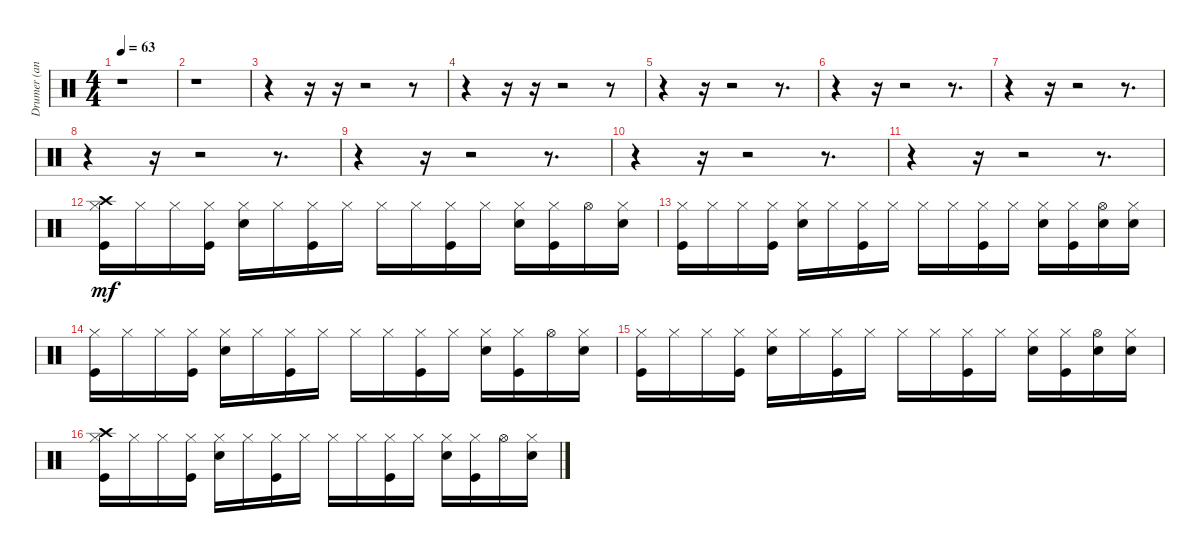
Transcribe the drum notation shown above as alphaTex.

\track ("Drumer (ananbakeri.blogspot.com)" "Drumer (an") {instrument percussion}
\staff {score}
\articulation defaults
\ts (4 4)
\tempo 63
\clef neutral
\ks c
r.1{dy mf} |
r.1 |
r.4 r.16 r.16 r.2 r.8 |
r.4 r.16 r.16 r.2 r.8 |
r.4 r.16 r.2 r.8{d} |
r.4 r.16 r.2 r.8{d} |
r.4 r.16 r.2 r.8{d} |
r.4 r.16 r.2 r.8{d} |
r.4 r.16 r.2 r.8{d} |
r.4 r.16 r.2 r.8{d} |
r.4 r.16 r.2 r.8{d} |
("Hi-Hat (closed)" "Crash high (hit)" "Kick (hit)").16 "Hi-Hat (closed)".16 "Hi-Hat (closed)".16 ("Hi-Hat (closed)" "Kick (hit)").16 ("Hi-Hat (closed)" "Snare (hit) 2").16 "Hi-Hat (closed)".16 ("Hi-Hat (closed)" "Kick (hit)").16 "Hi-Hat (closed)".16 "Hi-Hat (closed)".16 "Hi-Hat (closed)".16 ("Hi-Hat (closed)" "Kick (hit)").16 "Hi-Hat (closed)".16 ("Hi-Hat (closed)" "Snare (hit) 2").16 ("Hi-Hat (closed)" "Kick (hit)").16 "Hi-Hat (open)".16 ("Hi-Hat (closed)" "Snare (hit) 2").16 |
("Hi-Hat (closed)" "Kick (hit)").16 "Hi-Hat (closed)".16 "Hi-Hat (closed)".16 ("Hi-Hat (closed)" "Kick (hit)").16 ("Hi-Hat (closed)" "Snare (hit) 2").16 "Hi-Hat (closed)".16 ("Hi-Hat (closed)" "Kick (hit)").16 "Hi-Hat (closed)".16 "Hi-Hat (closed)".16 "Hi-Hat (closed)".16 ("Hi-Hat (closed)" "Kick (hit)").16 "Hi-Hat (closed)".16 ("Hi-Hat (closed)" "Snare (hit) 2").16 ("Hi-Hat (closed)" "Kick (hit)").16 ("Hi-Hat (open)" "Snare (hit) 2").16 ("Hi-Hat (closed)" "Snare (hit) 2").16 |
("Hi-Hat (closed)" "Kick (hit)").16 "Hi-Hat (closed)".16 "Hi-Hat (closed)".16 ("Hi-Hat (closed)" "Kick (hit)").16 ("Hi-Hat (closed)" "Snare (hit) 2").16 "Hi-Hat (closed)".16 ("Hi-Hat (closed)" "Kick (hit)").16 "Hi-Hat (closed)".16 "Hi-Hat (closed)".16 "Hi-Hat (closed)".16 ("Hi-Hat (closed)" "Kick (hit)").16 "Hi-Hat (closed)".16 ("Hi-Hat (closed)" "Snare (hit) 2").16 ("Hi-Hat (closed)" "Kick (hit)").16 "Hi-Hat (open)".16 ("Hi-Hat (closed)" "Snare (hit) 2").16 |
("Hi-Hat (closed)" "Kick (hit)").16 "Hi-Hat (closed)".16 "Hi-Hat (closed)".16 ("Hi-Hat (closed)" "Kick (hit)").16 ("Hi-Hat (closed)" "Snare (hit) 2").16 "Hi-Hat (closed)".16 ("Hi-Hat (closed)" "Kick (hit)").16 "Hi-Hat (closed)".16 "Hi-Hat (closed)".16 "Hi-Hat (closed)".16 ("Hi-Hat (closed)" "Kick (hit)").16 "Hi-Hat (closed)".16 ("Hi-Hat (closed)" "Snare (hit) 2").16 ("Hi-Hat (closed)" "Kick (hit)").16 ("Hi-Hat (open)" "Snare (hit) 2").16 ("Hi-Hat (closed)" "Snare (hit) 2").16 |
("Hi-Hat (closed)" "Kick (hit)" "Crash high (hit)").16 "Hi-Hat (closed)".16 "Hi-Hat (closed)".16 ("Hi-Hat (closed)" "Kick (hit)").16 ("Hi-Hat (closed)" "Snare (hit) 2").16 "Hi-Hat (closed)".16 ("Hi-Hat (closed)" "Kick (hit)").16 "Hi-Hat (closed)".16 "Hi-Hat (closed)".16 "Hi-Hat (closed)".16 ("Hi-Hat (closed)" "Kick (hit)").16 "Hi-Hat (closed)".16 ("Hi-Hat (closed)" "Snare (hit) 2").16 ("Hi-Hat (closed)" "Kick (hit)").16 "Hi-Hat (open)".16 ("Hi-Hat (closed)" "Snare (hit) 2").16
